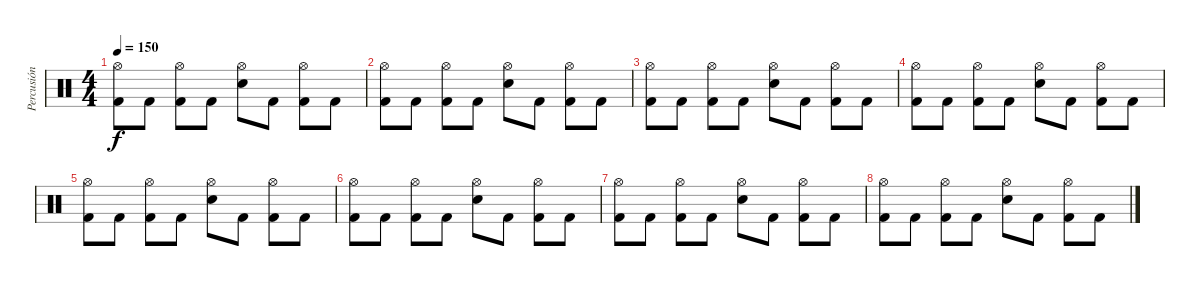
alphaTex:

\track ("Percusión" "Percusión") {instrument percussion}
\staff {score}
\articulation defaults
\ts (4 4)
\tempo 150
\clef neutral
\ks c
("Kick (hit) 2" "Hi-Hat (open)").8{dy f} "Kick (hit) 2".8 ("Kick (hit) 2" "Hi-Hat (open)").8 "Kick (hit) 2".8 ("Snare (hit) 2" "Hi-Hat (open)").8 "Kick (hit) 2".8 ("Kick (hit) 2" "Hi-Hat (open)").8 "Kick (hit) 2".8 |
("Kick (hit) 2" "Hi-Hat (open)").8 "Kick (hit) 2".8 ("Kick (hit) 2" "Hi-Hat (open)").8 "Kick (hit) 2".8 ("Snare (hit) 2" "Hi-Hat (open)").8 "Kick (hit) 2".8 ("Kick (hit) 2" "Hi-Hat (open)").8 "Kick (hit) 2".8 |
("Kick (hit) 2" "Hi-Hat (open)").8 "Kick (hit) 2".8 ("Kick (hit) 2" "Hi-Hat (open)").8 "Kick (hit) 2".8 ("Snare (hit) 2" "Hi-Hat (open)").8 "Kick (hit) 2".8 ("Kick (hit) 2" "Hi-Hat (open)").8 "Kick (hit) 2".8 |
("Kick (hit) 2" "Hi-Hat (open)").8 "Kick (hit) 2".8 ("Kick (hit) 2" "Hi-Hat (open)").8 "Kick (hit) 2".8 ("Snare (hit) 2" "Hi-Hat (open)").8 "Kick (hit) 2".8 ("Kick (hit) 2" "Hi-Hat (open)").8 "Kick (hit) 2".8 |
("Kick (hit) 2" "Hi-Hat (open)").8 "Kick (hit) 2".8 ("Kick (hit) 2" "Hi-Hat (open)").8 "Kick (hit) 2".8 ("Snare (hit) 2" "Hi-Hat (open)").8 "Kick (hit) 2".8 ("Kick (hit) 2" "Hi-Hat (open)").8 "Kick (hit) 2".8 |
("Kick (hit) 2" "Hi-Hat (open)").8 "Kick (hit) 2".8 ("Kick (hit) 2" "Hi-Hat (open)").8 "Kick (hit) 2".8 ("Snare (hit) 2" "Hi-Hat (open)").8 "Kick (hit) 2".8 ("Kick (hit) 2" "Hi-Hat (open)").8 "Kick (hit) 2".8 |
("Kick (hit) 2" "Hi-Hat (open)").8 "Kick (hit) 2".8 ("Kick (hit) 2" "Hi-Hat (open)").8 "Kick (hit) 2".8 ("Snare (hit) 2" "Hi-Hat (open)").8 "Kick (hit) 2".8 ("Kick (hit) 2" "Hi-Hat (open)").8 "Kick (hit) 2".8 |
("Kick (hit) 2" "Hi-Hat (open)").8 "Kick (hit) 2".8 ("Kick (hit) 2" "Hi-Hat (open)").8 "Kick (hit) 2".8 ("Snare (hit) 2" "Hi-Hat (open)").8 "Kick (hit) 2".8 ("Kick (hit) 2" "Hi-Hat (open)").8 "Kick (hit) 2".8
